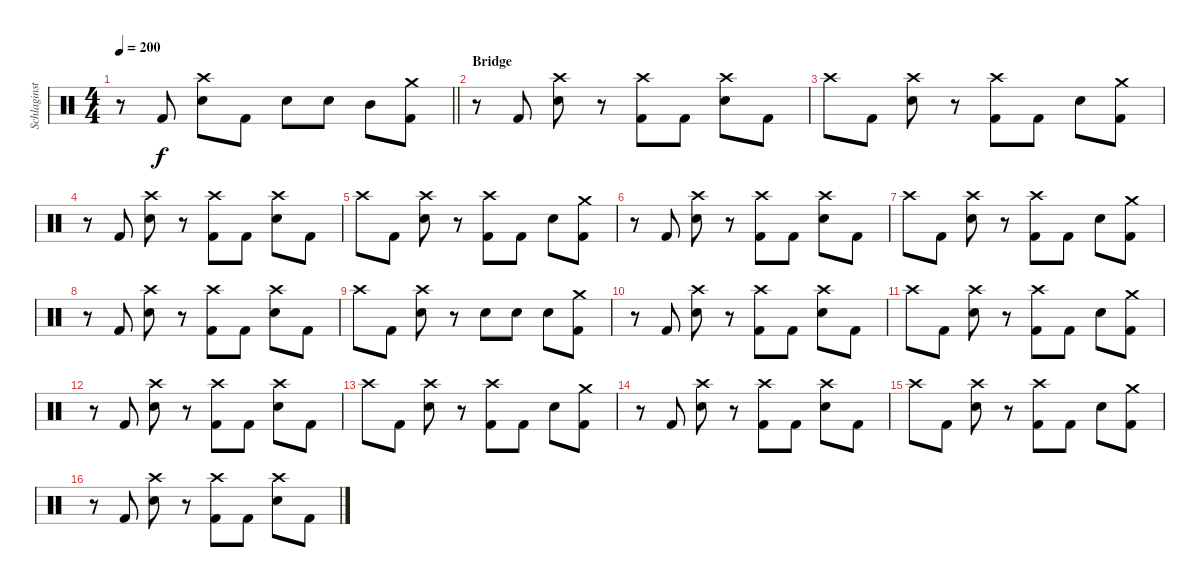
\track ("Schlaginstrumente - Auswahl" "Schlaginst") {instrument percussion}
\staff {score}
\articulation defaults
\ts (4 4)
\tempo 200
\clef neutral
\barLineRight lightlight
\ks c
r.8{dy f} "Kick (hit) 2".8 ("Crash high (hit)" "Electric Snare (hit)").8 "Kick (hit) 2".8 "Electric Snare (hit)".8 "Electric Snare (hit)".8 "Mid Tom (hit)".8 ("Crash medium (hit)" "Kick (hit) 2").8 |
\section ("" "Bridge")
r.8 "Kick (hit) 2".8 ("Crash high (hit)" "Electric Snare (hit)").8 r.8 ("Crash high (hit)" "Kick (hit) 2").8 "Kick (hit) 2".8 ("Crash high (hit)" "Electric Snare (hit)").8 "Kick (hit) 2".8 |
"Crash high (hit)".8 "Kick (hit) 2".8 ("Crash high (hit)" "Electric Snare (hit)").8 r.8 ("Crash high (hit)" "Kick (hit) 2").8 "Kick (hit) 2".8 "Electric Snare (hit)".8 ("Crash medium (hit)" "Kick (hit) 2").8 |
r.8 "Kick (hit) 2".8 ("Crash high (hit)" "Electric Snare (hit)").8 r.8 ("Crash high (hit)" "Kick (hit) 2").8 "Kick (hit) 2".8 ("Crash high (hit)" "Electric Snare (hit)").8 "Kick (hit) 2".8 |
"Crash high (hit)".8 "Kick (hit) 2".8 ("Crash high (hit)" "Electric Snare (hit)").8 r.8 ("Crash high (hit)" "Kick (hit) 2").8 "Kick (hit) 2".8 "Electric Snare (hit)".8 ("Crash medium (hit)" "Kick (hit) 2").8 |
r.8 "Kick (hit) 2".8 ("Crash high (hit)" "Electric Snare (hit)").8 r.8 ("Crash high (hit)" "Kick (hit) 2").8 "Kick (hit) 2".8 ("Crash high (hit)" "Electric Snare (hit)").8 "Kick (hit) 2".8 |
"Crash high (hit)".8 "Kick (hit) 2".8 ("Crash high (hit)" "Electric Snare (hit)").8 r.8 ("Crash high (hit)" "Kick (hit) 2").8 "Kick (hit) 2".8 "Electric Snare (hit)".8 ("Crash medium (hit)" "Kick (hit) 2").8 |
r.8 "Kick (hit) 2".8 ("Crash high (hit)" "Electric Snare (hit)").8 r.8 ("Crash high (hit)" "Kick (hit) 2").8 "Kick (hit) 2".8 ("Crash high (hit)" "Electric Snare (hit)").8 "Kick (hit) 2".8 |
"Crash high (hit)".8 "Kick (hit) 2".8 ("Crash high (hit)" "Electric Snare (hit)").8 r.8 "Electric Snare (hit)".8 "Electric Snare (hit)".8 "Electric Snare (hit)".8 ("Crash medium (hit)" "Kick (hit) 2").8 |
r.8 "Kick (hit) 2".8 ("Crash high (hit)" "Electric Snare (hit)").8 r.8 ("Crash high (hit)" "Kick (hit) 2").8 "Kick (hit) 2".8 ("Crash high (hit)" "Electric Snare (hit)").8 "Kick (hit) 2".8 |
"Crash high (hit)".8 "Kick (hit) 2".8 ("Crash high (hit)" "Electric Snare (hit)").8 r.8 ("Crash high (hit)" "Kick (hit) 2").8 "Kick (hit) 2".8 "Electric Snare (hit)".8 ("Crash medium (hit)" "Kick (hit) 2").8 |
r.8 "Kick (hit) 2".8 ("Crash high (hit)" "Electric Snare (hit)").8 r.8 ("Crash high (hit)" "Kick (hit) 2").8 "Kick (hit) 2".8 ("Crash high (hit)" "Electric Snare (hit)").8 "Kick (hit) 2".8 |
"Crash high (hit)".8 "Kick (hit) 2".8 ("Crash high (hit)" "Electric Snare (hit)").8 r.8 ("Crash high (hit)" "Kick (hit) 2").8 "Kick (hit) 2".8 "Electric Snare (hit)".8 ("Crash medium (hit)" "Kick (hit) 2").8 |
r.8 "Kick (hit) 2".8 ("Crash high (hit)" "Electric Snare (hit)").8 r.8 ("Crash high (hit)" "Kick (hit) 2").8 "Kick (hit) 2".8 ("Crash high (hit)" "Electric Snare (hit)").8 "Kick (hit) 2".8 |
"Crash high (hit)".8 "Kick (hit) 2".8 ("Crash high (hit)" "Electric Snare (hit)").8 r.8 ("Crash high (hit)" "Kick (hit) 2").8 "Kick (hit) 2".8 "Electric Snare (hit)".8 ("Crash medium (hit)" "Kick (hit) 2").8 |
r.8 "Kick (hit) 2".8 ("Crash high (hit)" "Electric Snare (hit)").8 r.8 ("Crash high (hit)" "Kick (hit) 2").8 "Kick (hit) 2".8 ("Crash high (hit)" "Electric Snare (hit)").8 "Kick (hit) 2".8
